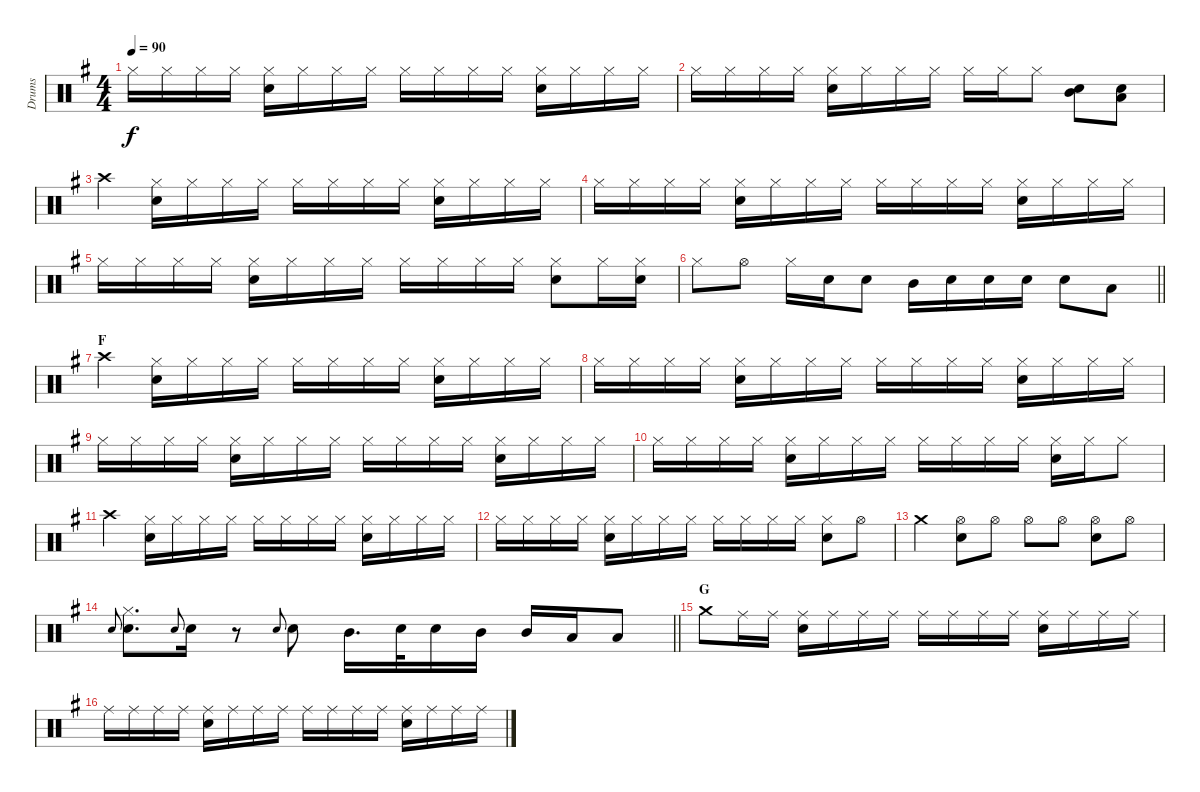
\track ("Drums" "Drums") {instrument percussion}
\staff {score}
\articulation defaults
\ts (4 4)
\tempo 90
\clef neutral
\ks g "Hi-Hat (closed)".16{dy f} "Hi-Hat (closed)".16 "Hi-Hat (closed)".16 "Hi-Hat (closed)".16
("Hi-Hat (closed)" "Snare (hit) 2").16 "Hi-Hat (closed)".16 "Hi-Hat (closed)".16 "Hi-Hat (closed)".16 "Hi-Hat (closed)".16 "Hi-Hat (closed)".16 "Hi-Hat (closed)".16 "Hi-Hat (closed)".16 ("Hi-Hat (closed)" "Snare (hit) 2").16 "Hi-Hat (closed)".16 "Hi-Hat (closed)".16 "Hi-Hat (closed)".16 |
"Hi-Hat (closed)".16 "Hi-Hat (closed)".16 "Hi-Hat (closed)".16 "Hi-Hat (closed)".16 ("Hi-Hat (closed)" "Snare (hit) 2").16 "Hi-Hat (closed)".16 "Hi-Hat (closed)".16 "Hi-Hat (closed)".16 "Hi-Hat (closed)".16 "Hi-Hat (closed)".16 "Hi-Hat (closed)".8 ("Mid Tom (hit)" "Snare (hit) 2").8 ("Low Tom (hit)" "Snare (hit) 2").8 |
"Crash high (hit)".4 ("Hi-Hat (closed)" "Snare (hit) 2").16 "Hi-Hat (closed)".16 "Hi-Hat (closed)".16 "Hi-Hat (closed)".16 "Hi-Hat (closed)".16 "Hi-Hat (closed)".16 "Hi-Hat (closed)".16 "Hi-Hat (closed)".16 ("Hi-Hat (closed)" "Snare (hit) 2").16 "Hi-Hat (closed)".16 "Hi-Hat (closed)".16 "Hi-Hat (closed)".16 |
"Hi-Hat (closed)".16 "Hi-Hat (closed)".16 "Hi-Hat (closed)".16 "Hi-Hat (closed)".16 ("Hi-Hat (closed)" "Snare (hit) 2").16 "Hi-Hat (closed)".16 "Hi-Hat (closed)".16 "Hi-Hat (closed)".16 "Hi-Hat (closed)".16 "Hi-Hat (closed)".16 "Hi-Hat (closed)".16 "Hi-Hat (closed)".16 ("Hi-Hat (closed)" "Snare (hit) 2").16 "Hi-Hat (closed)".16 "Hi-Hat (closed)".16 "Hi-Hat (closed)".16 |
"Hi-Hat (closed)".16 "Hi-Hat (closed)".16 "Hi-Hat (closed)".16 "Hi-Hat (closed)".16 ("Hi-Hat (closed)" "Snare (hit) 2").16 "Hi-Hat (closed)".16 "Hi-Hat (closed)".16 "Hi-Hat (closed)".16 "Hi-Hat (closed)".16 "Hi-Hat (closed)".16 "Hi-Hat (closed)".16 "Hi-Hat (closed)".16 ("Hi-Hat (closed)" "Snare (hit) 2").8 "Hi-Hat (closed)".16 ("Hi-Hat (closed)" "Snare (hit) 2").16 |
\barLineRight lightlight "Hi-Hat (closed)".8 "Hi-Hat (open)".8 "Hi-Hat (closed)".16 "Snare (hit) 2".16 "Snare (hit) 2".8 "Mid Tom (hit)".16 "Snare (hit) 2".16 "Snare (hit) 2".16 "Snare (hit) 2".16 "Snare (hit) 2".8 "Low Tom (hit)".8
|
\section ("" "F")
"Crash high (hit)".4 ("Hi-Hat (closed)" "Snare (hit) 2").16 "Hi-Hat (closed)".16 "Hi-Hat (closed)".16 "Hi-Hat (closed)".16 "Hi-Hat (closed)".16 "Hi-Hat (closed)".16 "Hi-Hat (closed)".16 "Hi-Hat (closed)".16 ("Hi-Hat (closed)" "Snare (hit) 2").16 "Hi-Hat (closed)".16 "Hi-Hat (closed)".16 "Hi-Hat (closed)".16 |
"Hi-Hat (closed)".16 "Hi-Hat (closed)".16 "Hi-Hat (closed)".16 "Hi-Hat (closed)".16 ("Hi-Hat (closed)" "Snare (hit) 2").16 "Hi-Hat (closed)".16 "Hi-Hat (closed)".16 "Hi-Hat (closed)".16 "Hi-Hat (closed)".16 "Hi-Hat (closed)".16 "Hi-Hat (closed)".16 "Hi-Hat (closed)".16 ("Hi-Hat (closed)" "Snare (hit) 2").16 "Hi-Hat (closed)".16 "Hi-Hat (closed)".16 "Hi-Hat (closed)".16 |
"Hi-Hat (closed)".16 "Hi-Hat (closed)".16 "Hi-Hat (closed)".16 "Hi-Hat (closed)".16 ("Hi-Hat (closed)" "Snare (hit) 2").16 "Hi-Hat (closed)".16 "Hi-Hat (closed)".16 "Hi-Hat (closed)".16 "Hi-Hat (closed)".16 "Hi-Hat (closed)".16 "Hi-Hat (closed)".16 "Hi-Hat (closed)".16 ("Hi-Hat (closed)" "Snare (hit) 2").16 "Hi-Hat (closed)".16 "Hi-Hat (closed)".16 "Hi-Hat (closed)".16 |
"Hi-Hat (closed)".16 "Hi-Hat (closed)".16 "Hi-Hat (closed)".16 "Hi-Hat (closed)".16 ("Hi-Hat (closed)" "Snare (hit) 2").16 "Hi-Hat (closed)".16 "Hi-Hat (closed)".16 "Hi-Hat (closed)".16 "Hi-Hat (closed)".16 "Hi-Hat (closed)".16 "Hi-Hat (closed)".16 "Hi-Hat (closed)".16 ("Hi-Hat (closed)" "Snare (hit) 2").16 "Hi-Hat (closed)".16 "Hi-Hat (closed)".8 |
"Crash high (hit)".4 ("Hi-Hat (closed)" "Snare (hit) 2").16 "Hi-Hat (closed)".16 "Hi-Hat (closed)".16 "Hi-Hat (closed)".16 "Hi-Hat (closed)".16 "Hi-Hat (closed)".16 "Hi-Hat (closed)".16 "Hi-Hat (closed)".16 ("Hi-Hat (closed)" "Snare (hit) 2").16 "Hi-Hat (closed)".16 "Hi-Hat (closed)".16 "Hi-Hat (closed)".16 |
"Hi-Hat (closed)".16 "Hi-Hat (closed)".16 "Hi-Hat (closed)".16 "Hi-Hat (closed)".16 ("Hi-Hat (closed)" "Snare (hit) 2").16 "Hi-Hat (closed)".16 "Hi-Hat (closed)".16 "Hi-Hat (closed)".16 "Hi-Hat (closed)".16 "Hi-Hat (closed)".16 "Hi-Hat (closed)".16 "Hi-Hat (closed)".16 ("Hi-Hat (closed)" "Snare (hit) 2").8 "Hi-Hat (open)".8 |
"Crash medium (hit)".4 ("Hi-Hat (open)" "Snare (hit) 2").8 "Hi-Hat (open)".8 "Hi-Hat (open)".8 "Hi-Hat (open)".8 ("Hi-Hat (open)" "Snare (hit) 2").8 "Hi-Hat (open)".8 |
\barLineRight lightlight "Snare (hit) 2".8{gr onbeat}
("Hi-Hat (closed)" "Snare (hit) 2").8{d} "Snare (hit) 2".8{gr onbeat} "Snare (hit) 2".16 r.8 "Snare (hit) 2".8{gr onbeat} "Snare (hit) 2".8 "Mid Tom (hit)".16{d} "Snare (hit) 2".32 "Snare (hit) 2".16 "Mid Tom (hit)".16 "Mid Tom (hit)".16 "Low Tom (hit)".16 "Low Tom (hit)".8 |
\section ("" "G")
"Crash medium (hit)".8 "Ride (middle)".16 "Ride (middle)".16 ("Ride (middle)" "Snare (hit) 2").16 "Ride (middle)".16 "Ride (middle)".16 "Ride (middle)".16 "Ride (middle)".16 "Ride (middle)".16 "Ride (middle)".16 "Ride (middle)".16 ("Ride (middle)" "Snare (hit) 2").16 "Ride (middle)".16 "Ride (middle)".16 "Ride (middle)".16 |
"Ride (middle)".16 "Ride (middle)".16 "Ride (middle)".16 "Ride (middle)".16 ("Ride (middle)" "Snare (hit) 2").16 "Ride (middle)".16 "Ride (middle)".16 "Ride (middle)".16 "Ride (middle)".16 "Ride (middle)".16 "Ride (middle)".16 "Ride (middle)".16 ("Ride (middle)" "Snare (hit) 2").16 "Ride (middle)".16 "Ride (middle)".16 "Ride (middle)".16
